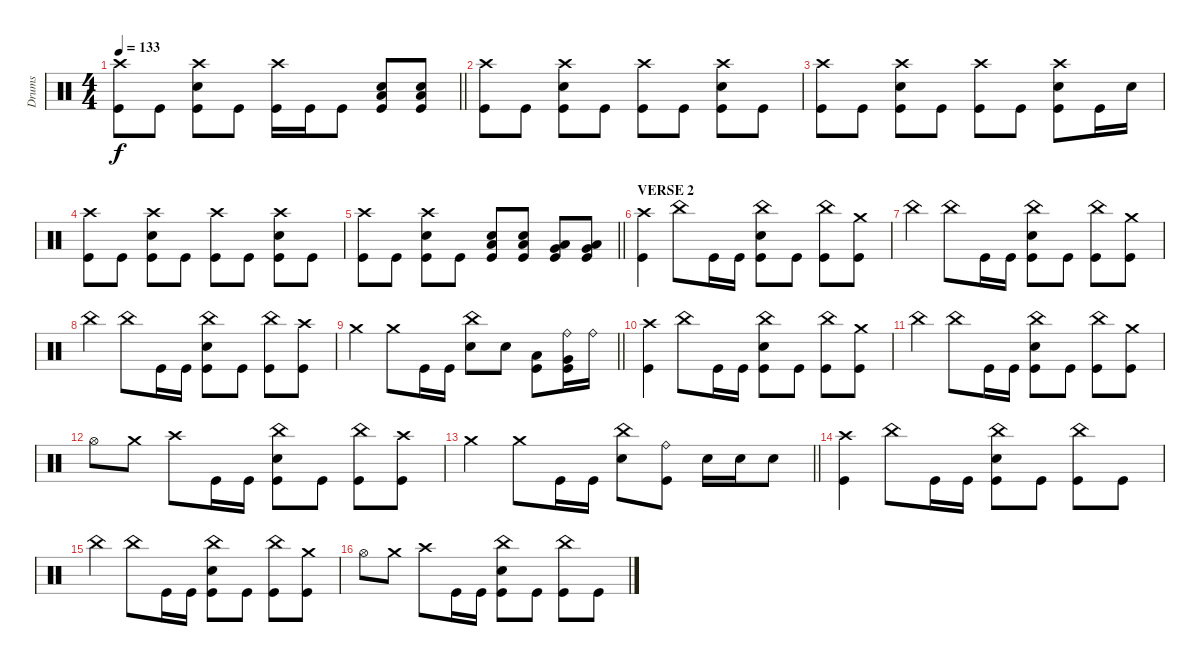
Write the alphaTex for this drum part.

\track ("Drums" "Drums") {instrument percussion}
\staff
\articulation defaults
\ts (4 4)
\tempo 133
\clef neutral
\barLineRight lightlight
\ks c
("Crash high (hit)" "Kick (hit)").8{dy f} "Kick (hit)".8 ("Crash high (hit)" "Electric Snare (hit)" "Kick (hit)").8 "Kick (hit)".8 ("Crash high (hit)" "Kick (hit)").16 "Kick (hit)".16 "Kick (hit)".8 ("Low Floor Tom (hit)" "Electric Snare (hit)" "Kick (hit)").8 ("Low Floor Tom (hit)" "Electric Snare (hit)" "Kick (hit)").8 |
("Crash high (hit)" "Kick (hit)").8 "Kick (hit)".8 ("Crash high (hit)" "Electric Snare (hit)" "Kick (hit)").8 "Kick (hit)".8 ("Crash high (hit)" "Kick (hit)").8 "Kick (hit)".8 ("Crash high (hit)" "Electric Snare (hit)" "Kick (hit)").8 "Kick (hit)".8 |
("Crash high (hit)" "Kick (hit)").8 "Kick (hit)".8 ("Crash high (hit)" "Electric Snare (hit)" "Kick (hit)").8 "Kick (hit)".8 ("Crash high (hit)" "Kick (hit)").8 "Kick (hit)".8 ("Crash high (hit)" "Electric Snare (hit)" "Kick (hit)").8 "Kick (hit)".16 "Electric Snare (hit)".16 |
("Crash high (hit)" "Kick (hit)").8 "Kick (hit)".8 ("Crash high (hit)" "Electric Snare (hit)" "Kick (hit)").8 "Kick (hit)".8 ("Crash high (hit)" "Kick (hit)").8 "Kick (hit)".8 ("Crash high (hit)" "Electric Snare (hit)" "Kick (hit)").8 "Kick (hit)".8 |
\barLineRight lightlight
("Crash high (hit)" "Kick (hit)").8 "Kick (hit)".8 ("Crash high (hit)" "Electric Snare (hit)" "Kick (hit)").8 "Kick (hit)".8 ("Low Floor Tom (hit)" "Electric Snare (hit)" "Kick (hit)").8 ("Low Floor Tom (hit)" "Electric Snare (hit)" "Kick (hit)").8 ("Very Low Tom (hit)" "Low Floor Tom (hit)" "Kick (hit)").8 ("Very Low Tom (hit)" "Low Floor Tom (hit)" "Kick (hit)").8 |
\section ("" "VERSE 2")
("Crash high (hit)" "Kick (hit)").4 "China (hit)".8 "Kick (hit)".16 "Kick (hit)".16 ("China (hit)" "Electric Snare (hit)" "Kick (hit)").8 "Kick (hit)".8 ("China (hit)" "Kick (hit)").8 ("Crash medium (hit)" "Kick (hit)").8 |
"China (hit)".4 "China (hit)".8 "Kick (hit)".16 "Kick (hit)".16 ("China (hit)" "Electric Snare (hit)" "Kick (hit)").8 "Kick (hit)".8 ("China (hit)" "Kick (hit)").8 ("Crash medium (hit)" "Kick (hit)").8 |
"China (hit)".4 "China (hit)".8 "Kick (hit)".16 "Kick (hit)".16 ("China (hit)" "Electric Snare (hit)" "Kick (hit)").8 "Kick (hit)".8 ("China (hit)" "Kick (hit)").8 ("Crash high (hit)" "Kick (hit)").8 |
\barLineRight lightlight "Crash medium (hit)".4 "Crash medium (hit)".8 "Kick (hit)".16 "Kick (hit)".16
("China (hit)" "Electric Snare (hit)").8 "Electric Snare (hit)".8 ("Low Tom (hit)" "Kick (hit)").8 ("Ride (bell)" "Very Low Tom (hit)" "Kick (hit)").16 "Ride (bell)".16 |
("Crash high (hit)" "Kick (hit)").4 "China (hit)".8 "Kick (hit)".16 "Kick (hit)".16 ("China (hit)" "Electric Snare (hit)" "Kick (hit)").8 "Kick (hit)".8 ("China (hit)" "Kick (hit)").8 ("Crash medium (hit)" "Kick (hit)").8 |
"China (hit)".4 "China (hit)".8 "Kick (hit)".16 "Kick (hit)".16 ("China (hit)" "Electric Snare (hit)" "Kick (hit)").8 "Kick (hit)".8 ("China (hit)" "Kick (hit)").8 ("Crash medium (hit)" "Kick (hit)").8 |
"Hi-Hat (open)".8 "Crash medium (hit)".8 "Crash high (hit)".8 "Kick (hit)".16 "Kick (hit)".16 ("China (hit)" "Electric Snare (hit)" "Kick (hit)").8 "Kick (hit)".8 ("China (hit)" "Kick (hit)").8 ("Crash high (hit)" "Kick (hit)").8 |
\barLineRight lightlight "Crash medium (hit)".4 "Crash medium (hit)".8 "Kick (hit)".16 "Kick (hit)".16
("China (hit)" "Electric Snare (hit)").8 ("Ride (bell)" "Kick (hit)").8 "Electric Snare (hit)".16 "Electric Snare (hit)".16 "Electric Snare (hit)".8 |
("Crash high (hit)" "Kick (hit)").4 "China (hit)".8 "Kick (hit)".16 "Kick (hit)".16 ("China (hit)" "Electric Snare (hit)" "Kick (hit)").8 "Kick (hit)".8 ("China (hit)" "Kick (hit)").8 "Kick (hit)".8 |
"China (hit)".4 "China (hit)".8 "Kick (hit)".16 "Kick (hit)".16 ("China (hit)" "Electric Snare (hit)" "Kick (hit)").8 "Kick (hit)".8 ("China (hit)" "Kick (hit)").8 ("Crash medium (hit)" "Kick (hit)").8 |
"Hi-Hat (open)".8 "Crash medium (hit)".8 "Crash high (hit)".8 "Kick (hit)".16 "Kick (hit)".16 ("China (hit)" "Electric Snare (hit)" "Kick (hit)").8 "Kick (hit)".8 ("China (hit)" "Kick (hit)").8 "Kick (hit)".8
